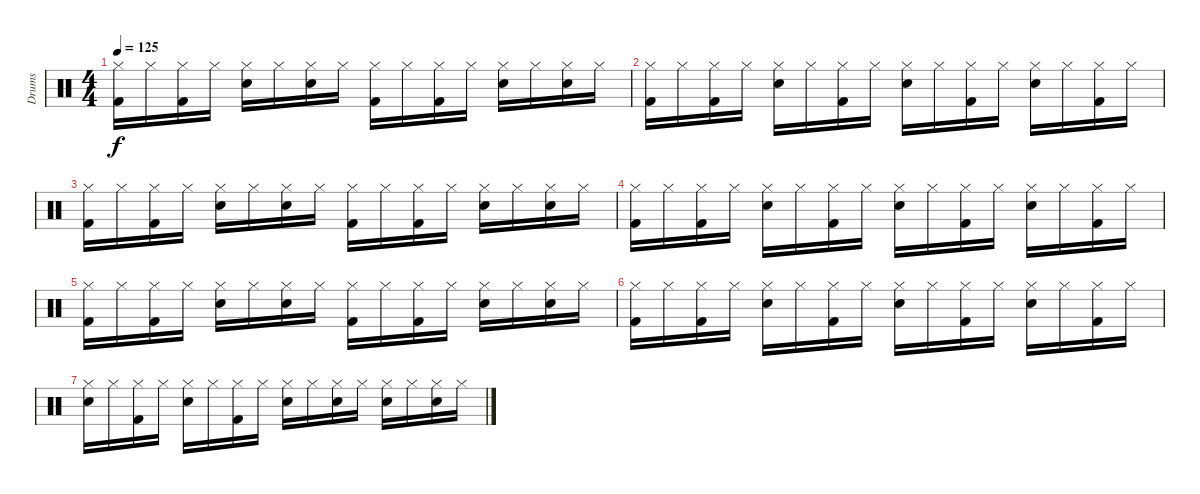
\track ("Drums" "Drums") {instrument percussion}
\staff {score}
\articulation defaults
\ts (4 4)
\tempo 125
\clef neutral
\ks c
("Hi-Hat (closed)" "Kick (hit) 2").16{dy f} "Hi-Hat (closed)".16 ("Hi-Hat (closed)" "Kick (hit) 2").16 "Hi-Hat (closed)".16 ("Hi-Hat (closed)" "Electric Snare (hit)").16 "Hi-Hat (closed)".16 ("Hi-Hat (closed)" "Electric Snare (hit)").16 "Hi-Hat (closed)".16 ("Hi-Hat (closed)" "Kick (hit) 2").16 "Hi-Hat (closed)".16 ("Hi-Hat (closed)" "Kick (hit) 2").16 "Hi-Hat (closed)".16 ("Hi-Hat (closed)" "Electric Snare (hit)").16 "Hi-Hat (closed)".16 ("Hi-Hat (closed)" "Electric Snare (hit)").16 "Hi-Hat (closed)".16 |
("Hi-Hat (closed)" "Kick (hit) 2").16 "Hi-Hat (closed)".16 ("Hi-Hat (closed)" "Kick (hit) 2").16 "Hi-Hat (closed)".16 ("Hi-Hat (closed)" "Electric Snare (hit)").16 "Hi-Hat (closed)".16 ("Hi-Hat (closed)" "Kick (hit) 2").16 "Hi-Hat (closed)".16 ("Hi-Hat (closed)" "Electric Snare (hit)").16 "Hi-Hat (closed)".16 ("Hi-Hat (closed)" "Kick (hit) 2").16 "Hi-Hat (closed)".16 ("Hi-Hat (closed)" "Electric Snare (hit)").16 "Hi-Hat (closed)".16 ("Hi-Hat (closed)" "Kick (hit) 2").16 "Hi-Hat (closed)".16 |
("Hi-Hat (closed)" "Kick (hit) 2").16 "Hi-Hat (closed)".16 ("Hi-Hat (closed)" "Kick (hit) 2").16 "Hi-Hat (closed)".16 ("Hi-Hat (closed)" "Electric Snare (hit)").16 "Hi-Hat (closed)".16 ("Hi-Hat (closed)" "Electric Snare (hit)").16 "Hi-Hat (closed)".16 ("Hi-Hat (closed)" "Kick (hit) 2").16 "Hi-Hat (closed)".16 ("Hi-Hat (closed)" "Kick (hit) 2").16 "Hi-Hat (closed)".16 ("Hi-Hat (closed)" "Electric Snare (hit)").16 "Hi-Hat (closed)".16 ("Hi-Hat (closed)" "Electric Snare (hit)").16 "Hi-Hat (closed)".16 |
("Hi-Hat (closed)" "Kick (hit) 2").16 "Hi-Hat (closed)".16 ("Hi-Hat (closed)" "Kick (hit) 2").16 "Hi-Hat (closed)".16 ("Hi-Hat (closed)" "Electric Snare (hit)").16 "Hi-Hat (closed)".16 ("Hi-Hat (closed)" "Kick (hit) 2").16 "Hi-Hat (closed)".16 ("Hi-Hat (closed)" "Electric Snare (hit)").16 "Hi-Hat (closed)".16 ("Hi-Hat (closed)" "Kick (hit) 2").16 "Hi-Hat (closed)".16 ("Hi-Hat (closed)" "Electric Snare (hit)").16 "Hi-Hat (closed)".16 ("Hi-Hat (closed)" "Kick (hit) 2").16 "Hi-Hat (closed)".16 |
("Hi-Hat (closed)" "Kick (hit) 2").16 "Hi-Hat (closed)".16 ("Hi-Hat (closed)" "Kick (hit) 2").16 "Hi-Hat (closed)".16 ("Hi-Hat (closed)" "Electric Snare (hit)").16 "Hi-Hat (closed)".16 ("Hi-Hat (closed)" "Electric Snare (hit)").16 "Hi-Hat (closed)".16 ("Hi-Hat (closed)" "Kick (hit) 2").16 "Hi-Hat (closed)".16 ("Hi-Hat (closed)" "Kick (hit) 2").16 "Hi-Hat (closed)".16 ("Hi-Hat (closed)" "Electric Snare (hit)").16 "Hi-Hat (closed)".16 ("Hi-Hat (closed)" "Electric Snare (hit)").16 "Hi-Hat (closed)".16 |
("Hi-Hat (closed)" "Kick (hit) 2").16 "Hi-Hat (closed)".16 ("Hi-Hat (closed)" "Kick (hit) 2").16 "Hi-Hat (closed)".16 ("Hi-Hat (closed)" "Electric Snare (hit)").16 "Hi-Hat (closed)".16 ("Hi-Hat (closed)" "Kick (hit) 2").16 "Hi-Hat (closed)".16 ("Hi-Hat (closed)" "Electric Snare (hit)").16 "Hi-Hat (closed)".16 ("Hi-Hat (closed)" "Kick (hit) 2").16 "Hi-Hat (closed)".16 ("Hi-Hat (closed)" "Electric Snare (hit)").16 "Hi-Hat (closed)".16 ("Hi-Hat (closed)" "Kick (hit) 2").16 "Hi-Hat (closed)".16 |
("Hi-Hat (closed)" "Electric Snare (hit)").16 "Hi-Hat (closed)".16 ("Hi-Hat (closed)" "Kick (hit) 2").16 "Hi-Hat (closed)".16 ("Hi-Hat (closed)" "Electric Snare (hit)").16 "Hi-Hat (closed)".16 ("Hi-Hat (closed)" "Kick (hit) 2").16 "Hi-Hat (closed)".16 ("Hi-Hat (closed)" "Electric Snare (hit)").16 "Hi-Hat (closed)".16 ("Hi-Hat (closed)" "Electric Snare (hit)").16 "Hi-Hat (closed)".16 ("Hi-Hat (closed)" "Electric Snare (hit)").16 "Hi-Hat (closed)".16 ("Hi-Hat (closed)" "Electric Snare (hit)").16 "Hi-Hat (closed)".16
